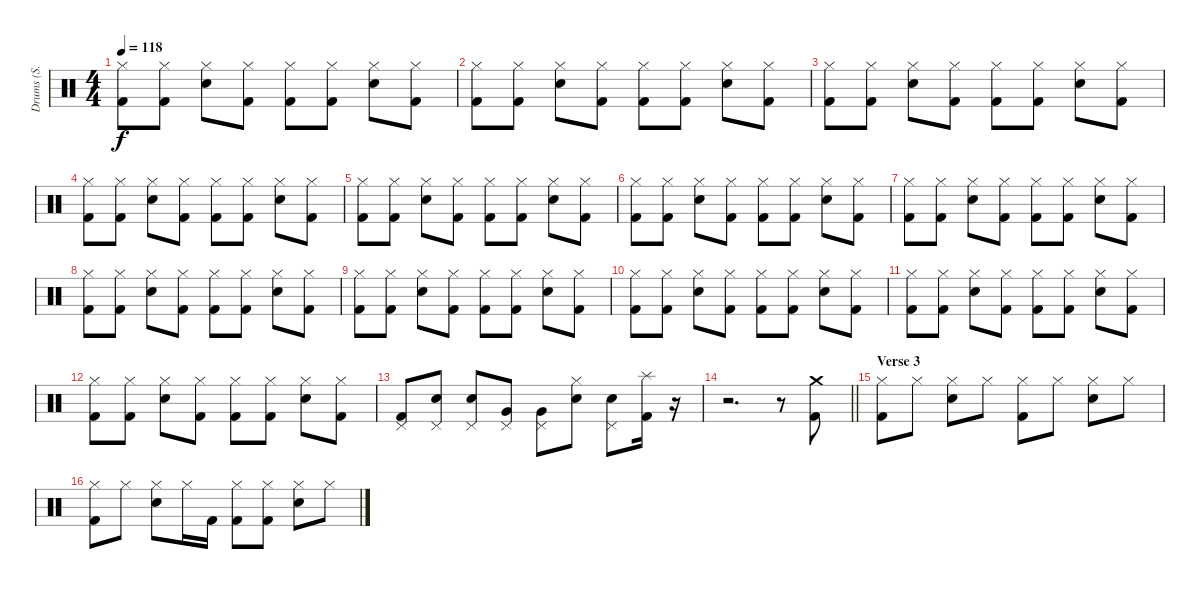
\track ("Drums (S. Rockenfield)" "Drums (S. ") {instrument percussion}
\staff {score}
\articulation defaults
\ts (4 4)
\tempo 118
\clef neutral
\ks c
("Hi-Hat (closed)" "Kick (hit) 2").8{dy f} ("Hi-Hat (closed)" "Kick (hit) 2").8 ("Hi-Hat (closed)" "Snare (hit) 2").8 ("Hi-Hat (closed)" "Kick (hit) 2").8 ("Hi-Hat (closed)" "Kick (hit) 2").8 ("Hi-Hat (closed)" "Kick (hit) 2").8 ("Hi-Hat (closed)" "Snare (hit) 2").8 ("Hi-Hat (closed)" "Kick (hit) 2").8 |
("Hi-Hat (closed)" "Kick (hit) 2").8 ("Hi-Hat (closed)" "Kick (hit) 2").8 ("Hi-Hat (closed)" "Snare (hit) 2").8 ("Hi-Hat (closed)" "Kick (hit) 2").8 ("Hi-Hat (closed)" "Kick (hit) 2").8 ("Hi-Hat (closed)" "Kick (hit) 2").8 ("Hi-Hat (closed)" "Snare (hit) 2").8 ("Hi-Hat (closed)" "Kick (hit) 2").8 |
("Hi-Hat (closed)" "Kick (hit) 2").8 ("Hi-Hat (closed)" "Kick (hit) 2").8 ("Hi-Hat (closed)" "Snare (hit) 2").8 ("Hi-Hat (closed)" "Kick (hit) 2").8 ("Hi-Hat (closed)" "Kick (hit) 2").8 ("Hi-Hat (closed)" "Kick (hit) 2").8 ("Hi-Hat (closed)" "Snare (hit) 2").8 ("Hi-Hat (closed)" "Kick (hit) 2").8 |
("Hi-Hat (closed)" "Kick (hit) 2").8 ("Hi-Hat (closed)" "Kick (hit) 2").8 ("Hi-Hat (closed)" "Snare (hit) 2").8 ("Hi-Hat (closed)" "Kick (hit) 2").8 ("Hi-Hat (closed)" "Kick (hit) 2").8 ("Hi-Hat (closed)" "Kick (hit) 2").8 ("Hi-Hat (closed)" "Snare (hit) 2").8 ("Hi-Hat (closed)" "Kick (hit) 2").8 |
("Hi-Hat (closed)" "Kick (hit) 2").8 ("Hi-Hat (closed)" "Kick (hit) 2").8 ("Hi-Hat (closed)" "Snare (hit) 2").8 ("Hi-Hat (closed)" "Kick (hit) 2").8 ("Hi-Hat (closed)" "Kick (hit) 2").8 ("Hi-Hat (closed)" "Kick (hit) 2").8 ("Hi-Hat (closed)" "Snare (hit) 2").8 ("Hi-Hat (closed)" "Kick (hit) 2").8 |
("Hi-Hat (closed)" "Kick (hit) 2").8 ("Hi-Hat (closed)" "Kick (hit) 2").8 ("Hi-Hat (closed)" "Snare (hit) 2").8 ("Hi-Hat (closed)" "Kick (hit) 2").8 ("Hi-Hat (closed)" "Kick (hit) 2").8 ("Hi-Hat (closed)" "Kick (hit) 2").8 ("Hi-Hat (closed)" "Snare (hit) 2").8 ("Hi-Hat (closed)" "Kick (hit) 2").8 |
("Hi-Hat (closed)" "Kick (hit) 2").8 ("Hi-Hat (closed)" "Kick (hit) 2").8 ("Hi-Hat (closed)" "Snare (hit) 2").8 ("Hi-Hat (closed)" "Kick (hit) 2").8 ("Hi-Hat (closed)" "Kick (hit) 2").8 ("Hi-Hat (closed)" "Kick (hit) 2").8 ("Hi-Hat (closed)" "Snare (hit) 2").8 ("Hi-Hat (closed)" "Kick (hit) 2").8 |
("Hi-Hat (closed)" "Kick (hit) 2").8 ("Hi-Hat (closed)" "Kick (hit) 2").8 ("Hi-Hat (closed)" "Snare (hit) 2").8 ("Hi-Hat (closed)" "Kick (hit) 2").8 ("Hi-Hat (closed)" "Kick (hit) 2").8 ("Hi-Hat (closed)" "Kick (hit) 2").8 ("Hi-Hat (closed)" "Snare (hit) 2").8 ("Hi-Hat (closed)" "Kick (hit) 2").8 |
("Hi-Hat (closed)" "Kick (hit) 2").8 ("Hi-Hat (closed)" "Kick (hit) 2").8 ("Hi-Hat (closed)" "Snare (hit) 2").8 ("Hi-Hat (closed)" "Kick (hit) 2").8 ("Hi-Hat (closed)" "Kick (hit) 2").8 ("Hi-Hat (closed)" "Kick (hit) 2").8 ("Hi-Hat (closed)" "Snare (hit) 2").8 ("Hi-Hat (closed)" "Kick (hit) 2").8 |
("Hi-Hat (closed)" "Kick (hit) 2").8 ("Hi-Hat (closed)" "Kick (hit) 2").8 ("Hi-Hat (closed)" "Snare (hit) 2").8 ("Hi-Hat (closed)" "Kick (hit) 2").8 ("Hi-Hat (closed)" "Kick (hit) 2").8 ("Hi-Hat (closed)" "Kick (hit) 2").8 ("Hi-Hat (closed)" "Snare (hit) 2").8 ("Hi-Hat (closed)" "Kick (hit) 2").8 |
("Hi-Hat (closed)" "Kick (hit) 2").8 ("Hi-Hat (closed)" "Kick (hit) 2").8 ("Hi-Hat (closed)" "Snare (hit) 2").8 ("Hi-Hat (closed)" "Kick (hit) 2").8 ("Hi-Hat (closed)" "Kick (hit) 2").8 ("Hi-Hat (closed)" "Kick (hit) 2").8 ("Hi-Hat (closed)" "Snare (hit) 2").8 ("Hi-Hat (closed)" "Kick (hit) 2").8 |
("Hi-Hat (closed)" "Kick (hit) 2").8 ("Hi-Hat (closed)" "Kick (hit) 2").8 ("Hi-Hat (closed)" "Snare (hit) 2").8 ("Hi-Hat (closed)" "Kick (hit) 2").8 ("Hi-Hat (closed)" "Kick (hit) 2").8 ("Hi-Hat (closed)" "Kick (hit) 2").8 ("Hi-Hat (closed)" "Snare (hit) 2").8 ("Hi-Hat (closed)" "Kick (hit) 2").8 |
("Pedal Hi-Hat (hit)" "Kick (hit) 2").8 ("Pedal Hi-Hat (hit)" "Snare (hit) 2").8 ("Pedal Hi-Hat (hit)" "Snare (hit) 2").8 ("Pedal Hi-Hat (hit)" "Very Low Tom (hit)").8 ("Pedal Hi-Hat (hit)" "Very Low Tom (hit)").8 ("Hi-Hat (closed)" "Snare (hit) 2").8 ("Pedal Hi-Hat (hit)" "Snare (hit) 2").8 ("Splash (hit)" "Kick (hit) 2").16 r.16 |
\barLineRight lightlight
r.2{d} r.8 ("Crash medium (hit)" "Kick (hit) 2").8 |
\section ("" "Verse 3")
("Hi-Hat (closed)" "Kick (hit) 2").8 "Hi-Hat (closed)".8 ("Hi-Hat (closed)" "Snare (hit) 2").8 "Hi-Hat (closed)".8 ("Hi-Hat (closed)" "Kick (hit) 2").8 "Hi-Hat (closed)".8 ("Hi-Hat (closed)" "Snare (hit) 2").8 "Hi-Hat (closed)".8 |
("Hi-Hat (closed)" "Kick (hit) 2").8 "Hi-Hat (closed)".8 ("Hi-Hat (closed)" "Snare (hit) 2").8 "Hi-Hat (closed)".16 "Kick (hit) 2".16 ("Hi-Hat (closed)" "Kick (hit) 2").8 ("Hi-Hat (closed)" "Kick (hit) 2").8 ("Hi-Hat (closed)" "Snare (hit) 2").8 "Hi-Hat (closed)".8
